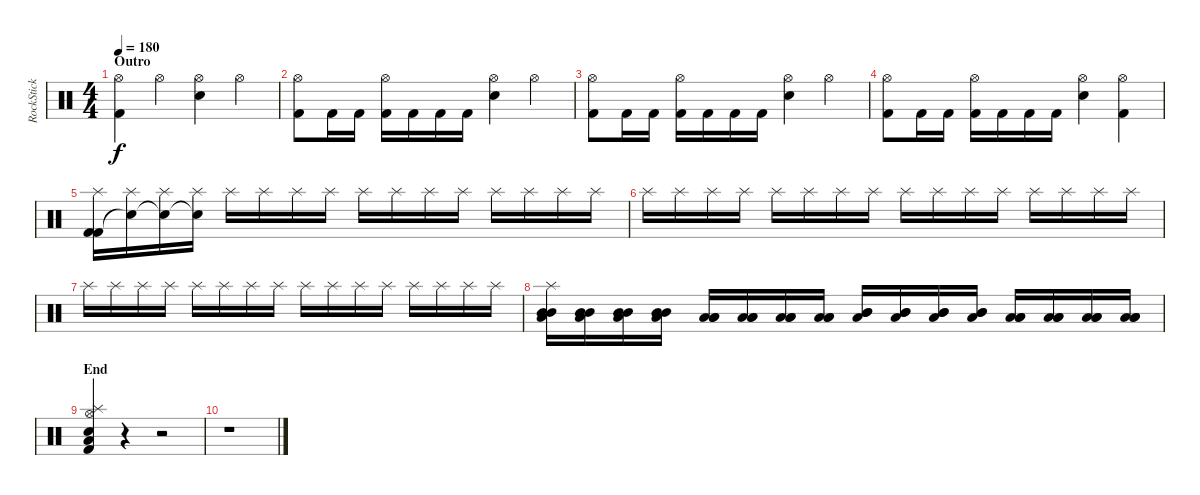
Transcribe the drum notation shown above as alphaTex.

\track ("RockStick" "RockStick") {instrument percussion}
\staff {score}
\articulation defaults
\ts (4 4)
\section ("" "Outro")
\tempo 180
\clef neutral
\ks c
("Kick (hit) 2" "Hi-Hat (open)").4{dy f} "Hi-Hat (open)".4 ("Electric Snare (hit)" "Hi-Hat (open)").4 "Hi-Hat (open)".4 |
("Kick (hit) 2" "Hi-Hat (open)").8 "Kick (hit) 2".16 "Kick (hit) 2".16 ("Kick (hit) 2" "Hi-Hat (open)").16 "Kick (hit) 2".16 "Kick (hit) 2".16 "Kick (hit) 2".16 ("Electric Snare (hit)" "Hi-Hat (open)").4 "Hi-Hat (open)".4 |
("Kick (hit) 2" "Hi-Hat (open)").8 "Kick (hit) 2".16 "Kick (hit) 2".16 ("Kick (hit) 2" "Hi-Hat (open)").16 "Kick (hit) 2".16 "Kick (hit) 2".16 "Kick (hit) 2".16 ("Electric Snare (hit)" "Hi-Hat (open)").4 "Hi-Hat (open)".4 |
("Kick (hit) 2" "Hi-Hat (open)").8 "Kick (hit) 2".16 "Kick (hit) 2".16 ("Kick (hit) 2" "Hi-Hat (open)").16 "Kick (hit) 2".16 "Kick (hit) 2".16 "Kick (hit) 2".16 ("Electric Snare (hit)" "Hi-Hat (open)").4 ("Kick (hit) 2" "Hi-Hat (open)").4 |
("Kick (hit) 2" "Splash (hit)" "Kick (hit) 2").16 ("Snare (hit)"{t} "Splash (hit)").16{volume 12} ("Snare (hit)"{t} "Splash (hit)").16 ("Snare (hit)"{t} "Splash (hit)").16 "Splash (hit)".16 "Splash (hit)".16 "Splash (hit)".16 "Splash (hit)".16 "Splash (hit)".16 "Splash (hit)".16 "Splash (hit)".16 "Splash (hit)".16 "Splash (hit)".16 "Splash (hit)".16 "Splash (hit)".16 "Splash (hit)".16 |
"Splash (hit)".16 "Splash (hit)".16 "Splash (hit)".16 "Splash (hit)".16 "Splash (hit)".16 "Splash (hit)".16 "Splash (hit)".16 "Splash (hit)".16 "Splash (hit)".16 "Splash (hit)".16 "Splash (hit)".16 "Splash (hit)".16 "Splash (hit)".16 "Splash (hit)".16 "Splash (hit)".16 "Splash (hit)".16 |
"Splash (hit)".16 "Splash (hit)".16 "Splash (hit)".16 "Splash (hit)".16 "Splash (hit)".16 "Splash (hit)".16 "Splash (hit)".16 "Splash (hit)".16 "Splash (hit)".16 "Splash (hit)".16 "Splash (hit)".16 "Splash (hit)".16 "Splash (hit)".16 "Splash (hit)".16 "Splash (hit)".16 "Splash (hit)".16 |
("Mid Tom (hit)" "Mid Tom (hit)" "Low Tom (hit)" "Splash (hit)").16 ("Mid Tom (hit)" "Mid Tom (hit)" "Low Tom (hit)").16 ("Mid Tom (hit)" "Mid Tom (hit)" "Low Tom (hit)").16 ("Mid Tom (hit)" "Mid Tom (hit)" "Low Tom (hit)").16 ("Low Tom (hit)" "Low Tom (hit)" "Low Tom (hit)").16 ("Low Tom (hit)" "Low Tom (hit)" "Low Tom (hit)").16 ("Low Tom (hit)" "Low Tom (hit)" "Low Tom (hit)").16 ("Low Tom (hit)" "Low Tom (hit)" "Low Tom (hit)").16 ("Mid Tom (hit)" "Mid Tom (hit)" "Low Tom (hit)").16 ("Mid Tom (hit)" "Mid Tom (hit)" "Low Tom (hit)").16 ("Mid Tom (hit)" "Mid Tom (hit)" "Low Tom (hit)").16 ("Mid Tom (hit)" "Mid Tom (hit)" "Low Tom (hit)").16 ("Low Floor Tom (hit)" "Low Floor Tom (hit)" "Low Tom (hit)").16 ("Low Floor Tom (hit)" "Low Floor Tom (hit)" "Low Tom (hit)").16 ("Low Floor Tom (hit)" "Low Floor Tom (hit)" "Low Tom (hit)").16 ("Low Floor Tom (hit)" "Low Floor Tom (hit)" "Low Tom (hit)").16 |
\section ("" "End")
("Hi-Hat (open)" "Splash (hit)" "Kick (hit) 2" "Snare (hit) 2" "Low Tom (hit)").4 r.4 r.2 |
r.1
